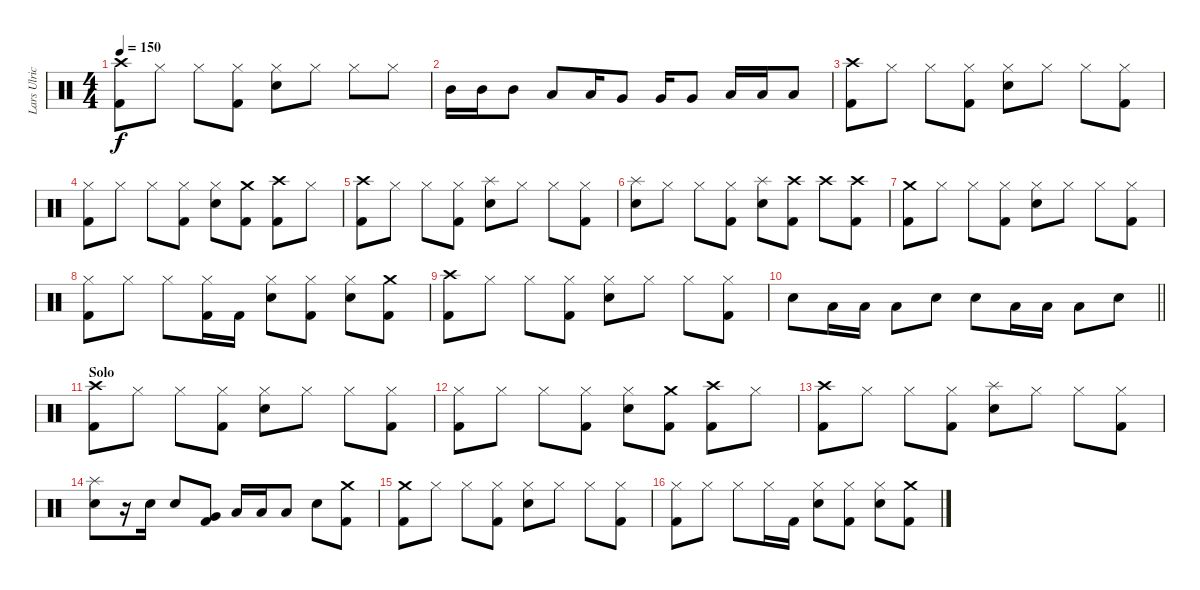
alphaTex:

\track ("Lars Ulrich" "Lars Ulric") {instrument percussion}
\staff {score}
\articulation defaults
\ts (4 4)
\tempo 150
\clef neutral
\ks c
("Crash high (hit)" "Kick (hit) 2").8{dy f} "Hi-Hat (closed)".8 "Hi-Hat (closed)".8 ("Hi-Hat (closed)" "Kick (hit) 2").8 ("Hi-Hat (closed)" "Snare (hit) 2").8 "Hi-Hat (closed)".8 "Hi-Hat (closed)".8 "Hi-Hat (closed)".8 |
"Mid Tom (hit)".16 "Mid Tom (hit)".16 "Mid Tom (hit)".8 "Low Tom (hit)".8 "Low Tom (hit)".16 "Very Low Tom (hit)".8 "Very Low Tom (hit)".16 "Very Low Tom (hit)".8 "Low Floor Tom (hit)".16 "Low Floor Tom (hit)".16 "Low Floor Tom (hit)".8 |
("Crash high (hit)" "Kick (hit) 2").8 "Hi-Hat (closed)".8 "Hi-Hat (closed)".8 ("Hi-Hat (closed)" "Kick (hit) 2").8 ("Hi-Hat (closed)" "Snare (hit) 2").8 "Hi-Hat (closed)".8 "Hi-Hat (closed)".8 ("Hi-Hat (closed)" "Kick (hit) 2").8 |
("Hi-Hat (closed)" "Kick (hit) 2").8 "Hi-Hat (closed)".8 "Hi-Hat (closed)".8 ("Hi-Hat (closed)" "Kick (hit) 2").8 ("Hi-Hat (closed)" "Snare (hit) 2").8 ("Crash medium (hit)" "Kick (hit) 2").8 ("Crash high (hit)" "Kick (hit) 2").8 "Hi-Hat (closed)".8 |
("Crash high (hit)" "Kick (hit) 2").8 "Hi-Hat (closed)".8 "Hi-Hat (closed)".8 ("Hi-Hat (closed)" "Kick (hit) 2").8 ("Splash (hit)" "Snare (hit) 2").8 "Hi-Hat (closed)".8 "Hi-Hat (closed)".8 ("Hi-Hat (closed)" "Kick (hit) 2").8 |
("Splash (hit)" "Snare (hit) 2").8 "Hi-Hat (closed)".8 "Hi-Hat (closed)".8 ("Hi-Hat (closed)" "Kick (hit) 2").8 ("Splash (hit)" "Snare (hit) 2").8 ("Crash high (hit)" "Kick (hit) 2").8 "Crash high (hit)".8{volume 0} ("Crash high (hit)" "Kick (hit) 2").8{volume 16} |
("Crash medium (hit)" "Kick (hit) 2").8 "Hi-Hat (closed)".8 "Hi-Hat (closed)".8 ("Hi-Hat (closed)" "Kick (hit) 2").8 ("Hi-Hat (closed)" "Snare (hit) 2").8 "Hi-Hat (closed)".8 "Hi-Hat (closed)".8 ("Hi-Hat (closed)" "Kick (hit) 2").8 |
("Hi-Hat (closed)" "Kick (hit) 2").8 "Hi-Hat (closed)".8 "Hi-Hat (closed)".8 ("Hi-Hat (closed)" "Kick (hit) 2").16 "Kick (hit) 2".16 ("Hi-Hat (closed)" "Snare (hit) 2").8 ("Hi-Hat (closed)" "Kick (hit) 2").8 ("Hi-Hat (closed)" "Snare (hit) 2").8 ("Crash medium (hit)" "Kick (hit) 2").8 |
("Crash high (hit)" "Kick (hit) 2").8 "Hi-Hat (closed)".8 "Hi-Hat (closed)".8 ("Hi-Hat (closed)" "Kick (hit) 2").8 ("Hi-Hat (closed)" "Snare (hit) 2").8 "Hi-Hat (closed)".8 "Hi-Hat (closed)".8 ("Hi-Hat (closed)" "Kick (hit) 2").8 |
\barLineRight lightlight "Snare (hit) 2".8 "Low Tom (hit)".16 "Low Tom (hit)".16 "Low Tom (hit)".8 "Snare (hit) 2".8 "Snare (hit) 2".8 "Low Tom (hit)".16 "Low Tom (hit)".16 "Low Tom (hit)".8 "Snare (hit) 2".8
|
\section ("" "Solo")
("Crash high (hit)" "Kick (hit) 2").8 "Hi-Hat (closed)".8 "Hi-Hat (closed)".8 ("Hi-Hat (closed)" "Kick (hit) 2").8 ("Hi-Hat (closed)" "Snare (hit) 2").8 "Hi-Hat (closed)".8 "Hi-Hat (closed)".8 ("Hi-Hat (closed)" "Kick (hit) 2").8 |
("Hi-Hat (closed)" "Kick (hit) 2").8 "Hi-Hat (closed)".8 "Hi-Hat (closed)".8 ("Hi-Hat (closed)" "Kick (hit) 2").8 ("Hi-Hat (closed)" "Snare (hit) 2").8 ("Crash medium (hit)" "Kick (hit) 2").8 ("Crash high (hit)" "Kick (hit) 2").8 "Hi-Hat (closed)".8 |
("Crash high (hit)" "Kick (hit) 2").8 "Hi-Hat (closed)".8 "Hi-Hat (closed)".8 ("Hi-Hat (closed)" "Kick (hit) 2").8 ("Splash (hit)" "Snare (hit) 2").8 "Hi-Hat (closed)".8 "Hi-Hat (closed)".8 ("Hi-Hat (closed)" "Kick (hit) 2").8 |
("Splash (hit)" "Snare (hit) 2").8 r.16 "Snare (hit) 2".16 "Snare (hit) 2".8 ("Very Low Tom (hit)" "Kick (hit) 2").8 "Low Tom (hit)".16 "Low Tom (hit)".16 "Low Tom (hit)".8 "Snare (hit) 2".8 ("Crash medium (hit)" "Kick (hit) 2").8 |
("Crash medium (hit)" "Kick (hit) 2").8 "Hi-Hat (closed)".8 "Hi-Hat (closed)".8 ("Hi-Hat (closed)" "Kick (hit) 2").8 ("Hi-Hat (closed)" "Snare (hit) 2").8 "Hi-Hat (closed)".8 "Hi-Hat (closed)".8 ("Hi-Hat (closed)" "Kick (hit) 2").8 |
("Hi-Hat (closed)" "Kick (hit) 2").8 "Hi-Hat (closed)".8 "Hi-Hat (closed)".8 "Hi-Hat (closed)".16 "Kick (hit) 2".16 ("Hi-Hat (closed)" "Snare (hit) 2").8 ("Hi-Hat (closed)" "Kick (hit) 2").8 ("Hi-Hat (closed)" "Snare (hit) 2").8 ("Crash medium (hit)" "Kick (hit) 2").8
